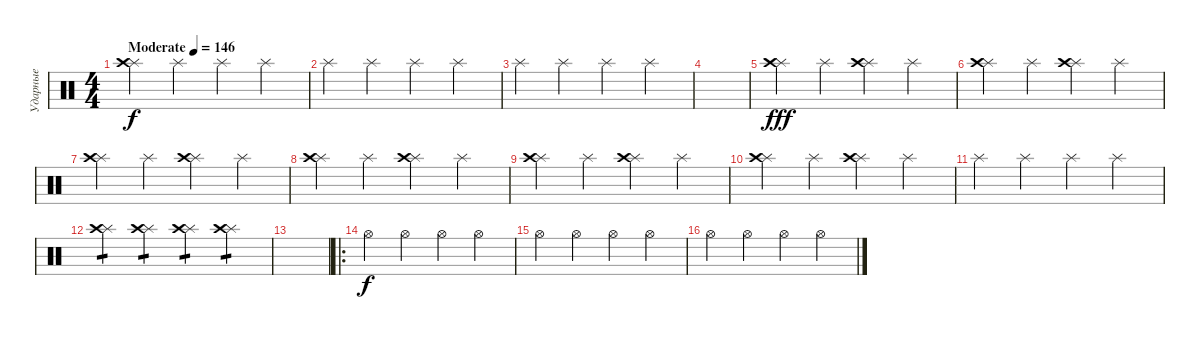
\track ("Ударные" "Ударные") {instrument percussion}
\staff {score}
\articulation defaults
\ts (4 4)
\tempo (146 "Moderate")
\clef neutral
\ks c
("Splash (hit)" "Crash high (hit)").4{dy f} "Splash (hit)".4 "Splash (hit)".4 "Splash (hit)".4 |
"Splash (hit)".4 "Splash (hit)".4 "Splash (hit)".4 "Splash (hit)".4 |
"Splash (hit)".4 "Splash (hit)".4 "Splash (hit)".4 "Splash (hit)".4 |
|
("Splash (hit)" "Crash high (hit)").4{dy fff} "Splash (hit)".4 ("Splash (hit)" "Crash high (hit)").4 "Splash (hit)".4 |
("Splash (hit)" "Crash high (hit)").4 "Splash (hit)".4 ("Splash (hit)" "Crash high (hit)").4 "Splash (hit)".4 |
("Splash (hit)" "Crash high (hit)").4 "Splash (hit)".4 ("Splash (hit)" "Crash high (hit)").4 "Splash (hit)".4 |
("Splash (hit)" "Crash high (hit)").4 "Splash (hit)".4 ("Splash (hit)" "Crash high (hit)").4 "Splash (hit)".4 |
("Splash (hit)" "Crash high (hit)").4 "Splash (hit)".4 ("Splash (hit)" "Crash high (hit)").4 "Splash (hit)".4 |
("Splash (hit)" "Crash high (hit)").4 "Splash (hit)".4 ("Splash (hit)" "Crash high (hit)").4 "Splash (hit)".4 |
"Splash (hit)".4 "Splash (hit)".4 "Splash (hit)".4 "Splash (hit)".4 |
("Splash (hit)" "Crash high (hit)").4{tp 1} ("Splash (hit)" "Crash high (hit)").4{tp 1} ("Splash (hit)" "Crash high (hit)").4{tp 1} ("Splash (hit)" "Crash high (hit)").4{tp 1} |
|
\ro "Hi-Hat (open)".4{dy f} "Hi-Hat (open)".4 "Hi-Hat (open)".4 "Hi-Hat (open)".4
|
"Hi-Hat (open)".4 "Hi-Hat (open)".4 "Hi-Hat (open)".4 "Hi-Hat (open)".4 |
"Hi-Hat (open)".4 "Hi-Hat (open)".4 "Hi-Hat (open)".4 "Hi-Hat (open)".4
